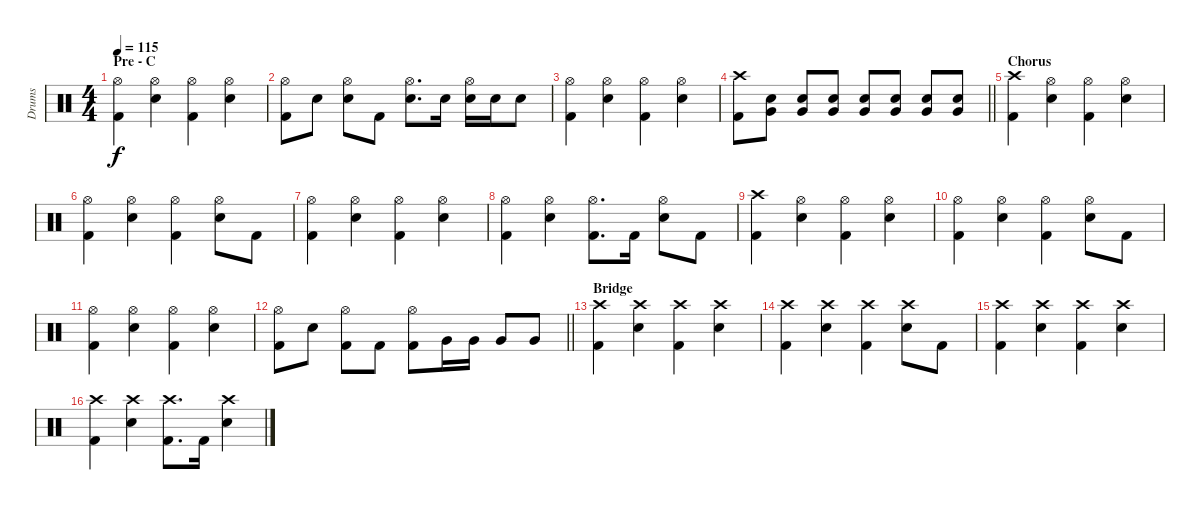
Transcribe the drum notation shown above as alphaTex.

\track ("Drums" "Drums") {instrument percussion}
\staff {score}
\articulation defaults
\ts (4 4)
\section ("" "Pre - C")
\tempo 115
\clef neutral
\ks c
("Hi-Hat (open)" "Kick (hit) 2").4{dy f} ("Hi-Hat (open)" "Snare (hit) 2").4 ("Hi-Hat (open)" "Kick (hit) 2").4 ("Hi-Hat (open)" "Snare (hit) 2").4 |
("Hi-Hat (open)" "Kick (hit) 2").8 "Snare (hit) 2".8 ("Hi-Hat (open)" "Snare (hit) 2").8 "Kick (hit) 2".8 ("Hi-Hat (open)" "Snare (hit) 2").8{d} "Snare (hit) 2".16 ("Hi-Hat (open)" "Snare (hit) 2").16 "Snare (hit) 2".16 "Snare (hit) 2".8 |
("Hi-Hat (open)" "Kick (hit) 2").4 ("Hi-Hat (open)" "Snare (hit) 2").4 ("Hi-Hat (open)" "Kick (hit) 2").4 ("Hi-Hat (open)" "Snare (hit) 2").4 |
\barLineRight lightlight
("Crash high (hit)" "Kick (hit) 2").8 ("Very Low Tom (hit)" "Snare (hit) 2").8 ("Very Low Tom (hit)" "Snare (hit) 2").8 ("Very Low Tom (hit)" "Snare (hit) 2").8 ("Very Low Tom (hit)" "Snare (hit) 2").8 ("Very Low Tom (hit)" "Snare (hit) 2").8 ("Very Low Tom (hit)" "Snare (hit) 2").8 ("Very Low Tom (hit)" "Snare (hit) 2").8 |
\section ("" "Chorus")
("Crash high (hit)" "Kick (hit) 2").4 ("Hi-Hat (open)" "Snare (hit) 2").4 ("Hi-Hat (open)" "Kick (hit) 2").4 ("Hi-Hat (open)" "Snare (hit) 2").4 |
("Hi-Hat (open)" "Kick (hit) 2").4 ("Hi-Hat (open)" "Snare (hit) 2").4 ("Hi-Hat (open)" "Kick (hit) 2").4 ("Hi-Hat (open)" "Snare (hit) 2").8 "Kick (hit) 2".8 |
("Hi-Hat (open)" "Kick (hit) 2").4 ("Hi-Hat (open)" "Snare (hit) 2").4 ("Hi-Hat (open)" "Kick (hit) 2").4 ("Hi-Hat (open)" "Snare (hit) 2").4 |
("Hi-Hat (open)" "Kick (hit) 2").4 ("Hi-Hat (open)" "Snare (hit) 2").4 ("Hi-Hat (open)" "Kick (hit) 2").8{d} "Kick (hit) 2".16 ("Hi-Hat (open)" "Snare (hit) 2").8 "Kick (hit) 2".8 |
("Crash high (hit)" "Kick (hit) 2").4 ("Hi-Hat (open)" "Snare (hit) 2").4 ("Hi-Hat (open)" "Kick (hit) 2").4 ("Hi-Hat (open)" "Snare (hit) 2").4 |
("Hi-Hat (open)" "Kick (hit) 2").4 ("Hi-Hat (open)" "Snare (hit) 2").4 ("Hi-Hat (open)" "Kick (hit) 2").4 ("Hi-Hat (open)" "Snare (hit) 2").8 "Kick (hit) 2".8 |
("Hi-Hat (open)" "Kick (hit) 2").4 ("Hi-Hat (open)" "Snare (hit) 2").4 ("Hi-Hat (open)" "Kick (hit) 2").4 ("Hi-Hat (open)" "Snare (hit) 2").4 |
\barLineRight lightlight
("Hi-Hat (open)" "Kick (hit) 2").8 "Snare (hit) 2".8 ("Hi-Hat (open)" "Kick (hit) 2").8 "Kick (hit) 2".8 ("Hi-Hat (open)" "Kick (hit) 2").8 "Very Low Tom (hit)".16 "Very Low Tom (hit)".16 "Very Low Tom (hit)".8 "Very Low Tom (hit)".8 |
\section ("" "Bridge")
("Crash high (hit)" "Kick (hit) 2").4 ("Crash high (hit)" "Snare (hit) 2").4 ("Crash high (hit)" "Kick (hit) 2").4 ("Crash high (hit)" "Snare (hit) 2").4 |
("Crash high (hit)" "Kick (hit) 2").4 ("Crash high (hit)" "Snare (hit) 2").4 ("Crash high (hit)" "Kick (hit) 2").4 ("Crash high (hit)" "Snare (hit) 2").8 "Kick (hit) 2".8 |
("Crash high (hit)" "Kick (hit) 2").4 ("Crash high (hit)" "Snare (hit) 2").4 ("Crash high (hit)" "Kick (hit) 2").4 ("Crash high (hit)" "Snare (hit) 2").4 |
("Crash high (hit)" "Kick (hit) 2").4 ("Crash high (hit)" "Snare (hit) 2").4 ("Crash high (hit)" "Kick (hit) 2").8{d} "Kick (hit) 2".16 ("Crash high (hit)" "Snare (hit) 2").4
